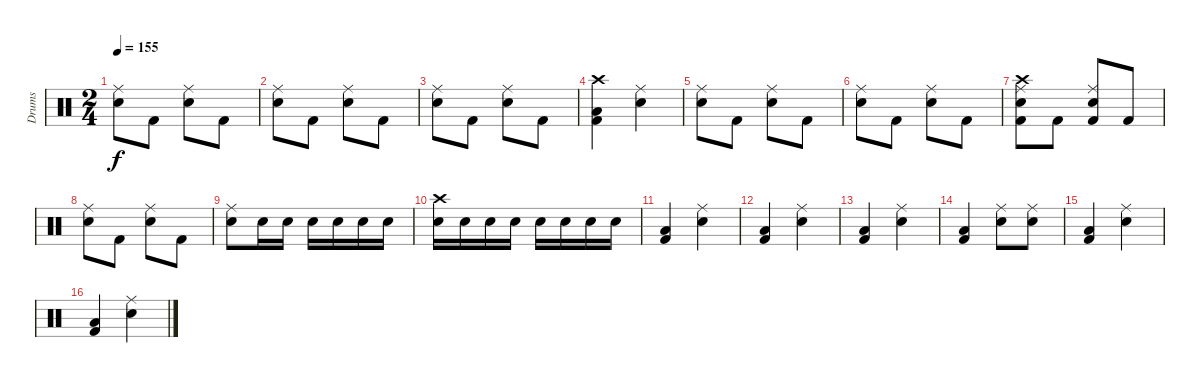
\track ("Drums" "Drums") {instrument percussion}
\staff {score}
\articulation defaults
\ts (2 4)
\tempo 155
\clef neutral
\ks c
("Snare (hit) 2" "Ride (middle)").8{dy f} "Kick (hit) 2".8 ("Snare (hit) 2" "Ride (middle)").8 "Kick (hit) 2".8 |
("Snare (hit) 2" "Ride (middle)").8 "Kick (hit) 2".8 ("Snare (hit) 2" "Ride (middle)").8 "Kick (hit) 2".8 |
("Snare (hit) 2" "Ride (middle)").8 "Kick (hit) 2".8 ("Snare (hit) 2" "Ride (middle)").8 "Kick (hit) 2".8 |
("Low Floor Tom (hit)" "Kick (hit) 2" "Crash high (hit)").4 ("Snare (hit) 2" "Ride (middle)").4 |
("Snare (hit) 2" "Ride (middle)").8 "Kick (hit) 2".8 ("Snare (hit) 2" "Ride (middle)").8 "Kick (hit) 2".8 |
("Snare (hit) 2" "Ride (middle)").8 "Kick (hit) 2".8 ("Snare (hit) 2" "Ride (middle)").8 "Kick (hit) 2".8 |
("Snare (hit) 2" "Ride (middle)" "Kick (hit) 2" "Crash high (hit)").8 "Kick (hit) 2".8 ("Snare (hit) 2" "Ride (middle)" "Kick (hit) 2").8 "Kick (hit) 2".8 |
("Snare (hit) 2" "Ride (middle)").8 "Kick (hit) 2".8 ("Snare (hit) 2" "Ride (middle)").8 "Kick (hit) 2".8 |
("Snare (hit) 2" "Ride (middle)").8 "Snare (hit) 2".16 "Snare (hit) 2".16 "Snare (hit) 2".16 "Snare (hit) 2".16 "Snare (hit) 2".16 "Snare (hit) 2".16 |
("Snare (hit) 2" "Crash high (hit)").16 "Snare (hit) 2".16 "Snare (hit) 2".16 "Snare (hit) 2".16 "Snare (hit) 2".16 "Snare (hit) 2".16 "Snare (hit) 2".16 "Snare (hit) 2".16 |
("Low Floor Tom (hit)" "Kick (hit) 2").4 ("Snare (hit) 2" "Ride (middle)").4 |
("Low Floor Tom (hit)" "Kick (hit) 2").4 ("Snare (hit) 2" "Ride (middle)").4 |
("Low Floor Tom (hit)" "Kick (hit) 2").4 ("Snare (hit) 2" "Ride (middle)").4 |
("Low Floor Tom (hit)" "Kick (hit) 2").4 ("Snare (hit) 2" "Ride (middle)").8 ("Snare (hit) 2" "Ride (middle)").8 |
("Low Floor Tom (hit)" "Kick (hit) 2").4 ("Snare (hit) 2" "Ride (middle)").4 |
("Low Floor Tom (hit)" "Kick (hit) 2").4 ("Snare (hit) 2" "Ride (middle)").4
